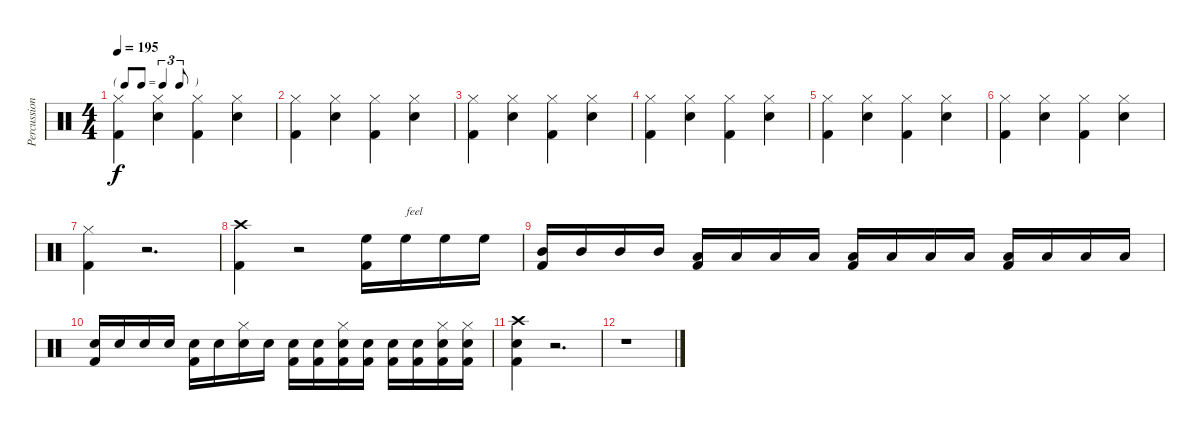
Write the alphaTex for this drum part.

\track ("Percussions" "Percussion") {instrument percussion}
\staff {score}
\articulation defaults
\ts (4 4)
\tf triplet8th
\tempo 195
\clef neutral
\ks c
("Hi-Hat (closed)" "Kick (hit) 2").4{dy f} ("Snare (hit) 2" "Hi-Hat (closed)").4 ("Hi-Hat (closed)" "Kick (hit) 2").4 ("Snare (hit) 2" "Hi-Hat (closed)").4 |
("Hi-Hat (closed)" "Kick (hit) 2").4 ("Snare (hit) 2" "Hi-Hat (closed)").4 ("Hi-Hat (closed)" "Kick (hit) 2").4 ("Snare (hit) 2" "Hi-Hat (closed)").4 |
("Hi-Hat (closed)" "Kick (hit) 2").4 ("Snare (hit) 2" "Hi-Hat (closed)").4 ("Hi-Hat (closed)" "Kick (hit) 2").4 ("Snare (hit) 2" "Hi-Hat (closed)").4 |
("Hi-Hat (closed)" "Kick (hit) 2").4 ("Snare (hit) 2" "Hi-Hat (closed)").4 ("Hi-Hat (closed)" "Kick (hit) 2").4 ("Snare (hit) 2" "Hi-Hat (closed)").4 |
("Hi-Hat (closed)" "Kick (hit) 2").4 ("Snare (hit) 2" "Hi-Hat (closed)").4 ("Hi-Hat (closed)" "Kick (hit) 2").4 ("Snare (hit) 2" "Hi-Hat (closed)").4 |
("Hi-Hat (closed)" "Kick (hit) 2").4 ("Snare (hit) 2" "Hi-Hat (closed)").4 ("Hi-Hat (closed)" "Kick (hit) 2").4 ("Snare (hit) 2" "Hi-Hat (closed)").4 |
("Hi-Hat (closed)" "Kick (hit) 2").4 r.2{d} |
("Crash high (hit)" "Kick (hit) 2").4 r.2 ("High Floor Tom (hit)" "Kick (hit) 2").16 "High Floor Tom (hit)".16{txt "feel"} "High Floor Tom (hit)".16 "High Floor Tom (hit)".16 |
("Mid Tom (hit)" "Kick (hit) 2").16 "Mid Tom (hit)".16 "Mid Tom (hit)".16 "Mid Tom (hit)".16 ("Low Tom (hit)" "Kick (hit) 2").16 "Low Tom (hit)".16 "Low Tom (hit)".16 "Low Tom (hit)".16 ("Low Floor Tom (hit)" "Kick (hit) 2").16 "Low Floor Tom (hit)".16 "Low Floor Tom (hit)".16 "Low Floor Tom (hit)".16 ("Low Floor Tom (hit)" "Kick (hit) 2").16 "Low Floor Tom (hit)".16 "Low Floor Tom (hit)".16 "Low Floor Tom (hit)".16 |
("Snare (hit) 2" "Kick (hit) 2").16 "Snare (hit) 2".16 "Snare (hit) 2".16 "Snare (hit) 2".16 ("Snare (hit) 2" "Kick (hit) 2").16 "Snare (hit) 2".16 ("Snare (hit) 2" "Hi-Hat (closed)").16 "Snare (hit) 2".16 ("Snare (hit) 2" "Kick (hit) 2").16 ("Snare (hit) 2" "Kick (hit) 2").16 ("Snare (hit) 2" "Hi-Hat (closed)" "Kick (hit) 2").16 ("Snare (hit) 2" "Kick (hit) 2").16 ("Snare (hit) 2" "Kick (hit) 2").16 ("Snare (hit) 2" "Kick (hit) 2").16 ("Snare (hit) 2" "Hi-Hat (closed)" "Kick (hit) 2").16 ("Snare (hit) 2" "Hi-Hat (closed)" "Kick (hit) 2").16 |
("Snare (hit) 2" "Crash high (hit)" "Kick (hit) 2").4 r.2{d} |
r.1
